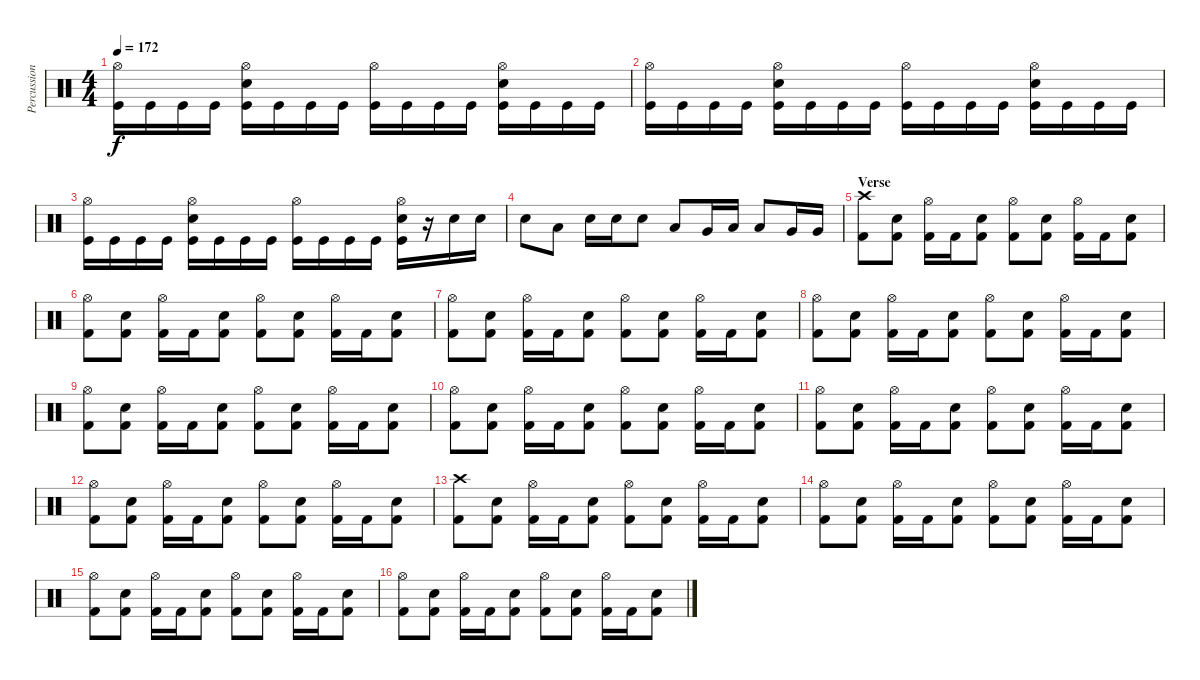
\track ("Percussion" "Percussion") {instrument percussion}
\staff {score}
\articulation defaults
\ts (4 4)
\tempo 172
\clef neutral
\ks c
("Hi-Hat (open)" "Kick (hit)").16{dy f} "Kick (hit)".16 "Kick (hit)".16 "Kick (hit)".16 ("Hi-Hat (open)" "Electric Snare (hit)" "Kick (hit)").16 "Kick (hit)".16 "Kick (hit)".16 "Kick (hit)".16 ("Hi-Hat (open)" "Kick (hit)").16 "Kick (hit)".16 "Kick (hit)".16 "Kick (hit)".16 ("Hi-Hat (open)" "Electric Snare (hit)" "Kick (hit)").16 "Kick (hit)".16 "Kick (hit)".16 "Kick (hit)".16 |
("Hi-Hat (open)" "Kick (hit)").16 "Kick (hit)".16 "Kick (hit)".16 "Kick (hit)".16 ("Hi-Hat (open)" "Electric Snare (hit)" "Kick (hit)").16 "Kick (hit)".16 "Kick (hit)".16 "Kick (hit)".16 ("Hi-Hat (open)" "Kick (hit)").16 "Kick (hit)".16 "Kick (hit)".16 "Kick (hit)".16 ("Hi-Hat (open)" "Electric Snare (hit)" "Kick (hit)").16 "Kick (hit)".16 "Kick (hit)".16 "Kick (hit)".16 |
("Hi-Hat (open)" "Kick (hit)").16 "Kick (hit)".16 "Kick (hit)".16 "Kick (hit)".16 ("Hi-Hat (open)" "Electric Snare (hit)" "Kick (hit)").16 "Kick (hit)".16 "Kick (hit)".16 "Kick (hit)".16 ("Hi-Hat (open)" "Kick (hit)").16 "Kick (hit)".16 "Kick (hit)".16 "Kick (hit)".16 ("Hi-Hat (open)" "Electric Snare (hit)" "Kick (hit)").16 r.16 "Electric Snare (hit)".16 "Electric Snare (hit)".16 |
"Electric Snare (hit)".8 "Low Tom (hit)".8 "Electric Snare (hit)".16 "Electric Snare (hit)".16 "Electric Snare (hit)".8 "Low Tom (hit)".8 "Very Low Tom (hit)".16 "Low Tom (hit)".16 "Low Tom (hit)".8 "Very Low Tom (hit)".16 "Very Low Tom (hit)".16 |
\section ("" "Verse")
("Crash high (hit)" "Kick (hit) 2").8 ("Electric Snare (hit)" "Kick (hit) 2").8 ("Hi-Hat (open)" "Kick (hit) 2").16 "Kick (hit) 2".16 ("Electric Snare (hit)" "Kick (hit) 2").8 ("Hi-Hat (open)" "Kick (hit) 2").8 ("Electric Snare (hit)" "Kick (hit) 2").8 ("Hi-Hat (open)" "Kick (hit) 2").16 "Kick (hit) 2".16 ("Electric Snare (hit)" "Kick (hit) 2").8 |
("Hi-Hat (open)" "Kick (hit) 2").8 ("Electric Snare (hit)" "Kick (hit) 2").8 ("Hi-Hat (open)" "Kick (hit) 2").16 "Kick (hit) 2".16 ("Electric Snare (hit)" "Kick (hit) 2").8 ("Hi-Hat (open)" "Kick (hit) 2").8 ("Electric Snare (hit)" "Kick (hit) 2").8 ("Hi-Hat (open)" "Kick (hit) 2").16 "Kick (hit) 2".16 ("Electric Snare (hit)" "Kick (hit) 2").8 |
("Hi-Hat (open)" "Kick (hit) 2").8 ("Electric Snare (hit)" "Kick (hit) 2").8 ("Hi-Hat (open)" "Kick (hit) 2").16 "Kick (hit) 2".16 ("Electric Snare (hit)" "Kick (hit) 2").8 ("Hi-Hat (open)" "Kick (hit) 2").8 ("Electric Snare (hit)" "Kick (hit) 2").8 ("Hi-Hat (open)" "Kick (hit) 2").16 "Kick (hit) 2".16 ("Electric Snare (hit)" "Kick (hit) 2").8 |
("Hi-Hat (open)" "Kick (hit) 2").8 ("Electric Snare (hit)" "Kick (hit) 2").8 ("Hi-Hat (open)" "Kick (hit) 2").16 "Kick (hit) 2".16 ("Electric Snare (hit)" "Kick (hit) 2").8 ("Hi-Hat (open)" "Kick (hit) 2").8 ("Electric Snare (hit)" "Kick (hit) 2").8 ("Hi-Hat (open)" "Kick (hit) 2").16 "Kick (hit) 2".16 ("Electric Snare (hit)" "Kick (hit) 2").8 |
("Hi-Hat (open)" "Kick (hit) 2").8 ("Electric Snare (hit)" "Kick (hit) 2").8 ("Hi-Hat (open)" "Kick (hit) 2").16 "Kick (hit) 2".16 ("Electric Snare (hit)" "Kick (hit) 2").8 ("Hi-Hat (open)" "Kick (hit) 2").8 ("Electric Snare (hit)" "Kick (hit) 2").8 ("Hi-Hat (open)" "Kick (hit) 2").16 "Kick (hit) 2".16 ("Electric Snare (hit)" "Kick (hit) 2").8 |
("Hi-Hat (open)" "Kick (hit) 2").8 ("Electric Snare (hit)" "Kick (hit) 2").8 ("Hi-Hat (open)" "Kick (hit) 2").16 "Kick (hit) 2".16 ("Electric Snare (hit)" "Kick (hit) 2").8 ("Hi-Hat (open)" "Kick (hit) 2").8 ("Electric Snare (hit)" "Kick (hit) 2").8 ("Hi-Hat (open)" "Kick (hit) 2").16 "Kick (hit) 2".16 ("Electric Snare (hit)" "Kick (hit) 2").8 |
("Hi-Hat (open)" "Kick (hit) 2").8 ("Electric Snare (hit)" "Kick (hit) 2").8 ("Hi-Hat (open)" "Kick (hit) 2").16 "Kick (hit) 2".16 ("Electric Snare (hit)" "Kick (hit) 2").8 ("Hi-Hat (open)" "Kick (hit) 2").8 ("Electric Snare (hit)" "Kick (hit) 2").8 ("Hi-Hat (open)" "Kick (hit) 2").16 "Kick (hit) 2".16 ("Electric Snare (hit)" "Kick (hit) 2").8 |
("Hi-Hat (open)" "Kick (hit) 2").8 ("Electric Snare (hit)" "Kick (hit) 2").8 ("Hi-Hat (open)" "Kick (hit) 2").16 "Kick (hit) 2".16 ("Electric Snare (hit)" "Kick (hit) 2").8 ("Hi-Hat (open)" "Kick (hit) 2").8 ("Electric Snare (hit)" "Kick (hit) 2").8 ("Hi-Hat (open)" "Kick (hit) 2").16 "Kick (hit) 2".16 ("Electric Snare (hit)" "Kick (hit) 2").8 |
("Crash high (hit)" "Kick (hit) 2").8 ("Electric Snare (hit)" "Kick (hit) 2").8 ("Hi-Hat (open)" "Kick (hit) 2").16 "Kick (hit) 2".16 ("Electric Snare (hit)" "Kick (hit) 2").8 ("Hi-Hat (open)" "Kick (hit) 2").8 ("Electric Snare (hit)" "Kick (hit) 2").8 ("Hi-Hat (open)" "Kick (hit) 2").16 "Kick (hit) 2".16 ("Electric Snare (hit)" "Kick (hit) 2").8 |
("Hi-Hat (open)" "Kick (hit) 2").8 ("Electric Snare (hit)" "Kick (hit) 2").8 ("Hi-Hat (open)" "Kick (hit) 2").16 "Kick (hit) 2".16 ("Electric Snare (hit)" "Kick (hit) 2").8 ("Hi-Hat (open)" "Kick (hit) 2").8 ("Electric Snare (hit)" "Kick (hit) 2").8 ("Hi-Hat (open)" "Kick (hit) 2").16 "Kick (hit) 2".16 ("Electric Snare (hit)" "Kick (hit) 2").8 |
("Hi-Hat (open)" "Kick (hit) 2").8 ("Electric Snare (hit)" "Kick (hit) 2").8 ("Hi-Hat (open)" "Kick (hit) 2").16 "Kick (hit) 2".16 ("Electric Snare (hit)" "Kick (hit) 2").8 ("Hi-Hat (open)" "Kick (hit) 2").8 ("Electric Snare (hit)" "Kick (hit) 2").8 ("Hi-Hat (open)" "Kick (hit) 2").16 "Kick (hit) 2".16 ("Electric Snare (hit)" "Kick (hit) 2").8 |
("Hi-Hat (open)" "Kick (hit) 2").8 ("Electric Snare (hit)" "Kick (hit) 2").8 ("Hi-Hat (open)" "Kick (hit) 2").16 "Kick (hit) 2".16 ("Electric Snare (hit)" "Kick (hit) 2").8 ("Hi-Hat (open)" "Kick (hit) 2").8 ("Electric Snare (hit)" "Kick (hit) 2").8 ("Hi-Hat (open)" "Kick (hit) 2").16 "Kick (hit) 2".16 ("Electric Snare (hit)" "Kick (hit) 2").8
